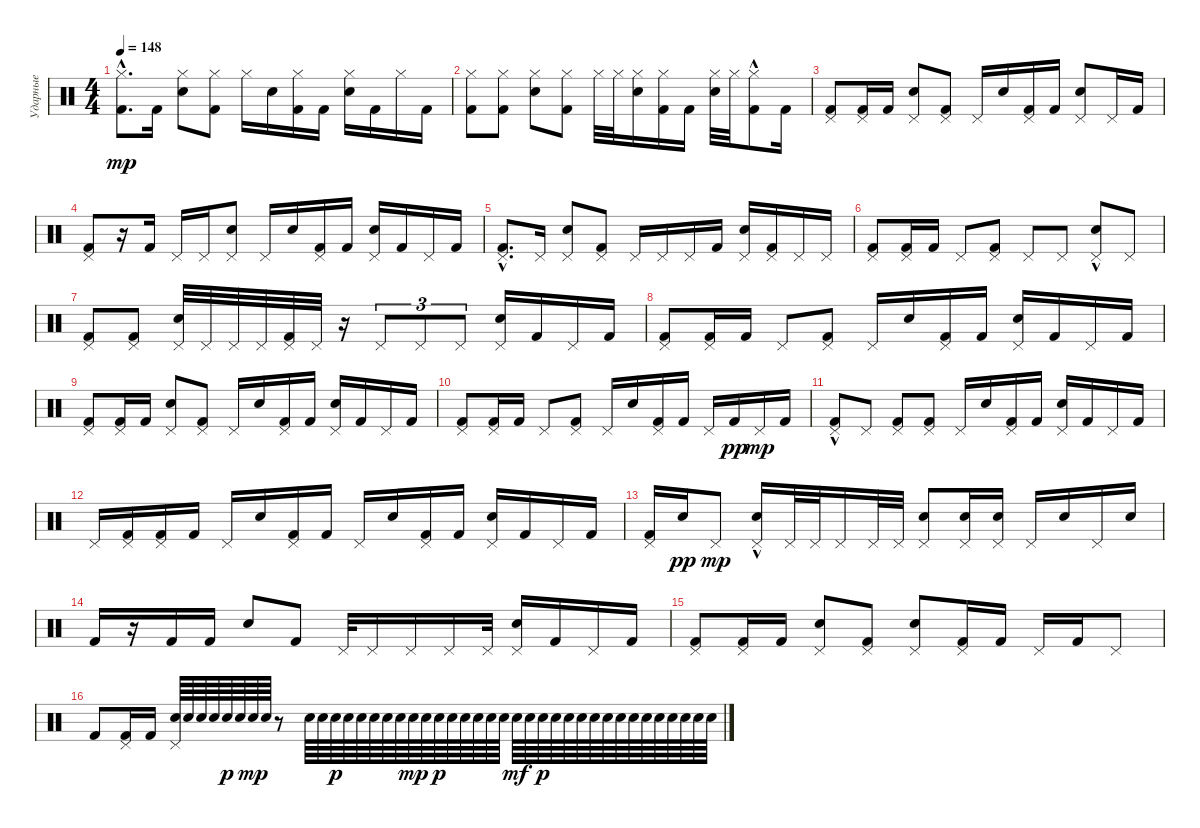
\track ("Ударные" "Ударные") {instrument percussion}
\staff {score}
\articulation defaults
\ts (4 4)
\tempo 148
\clef neutral
\ks c
("Kick (hit) 2" "Hi-Hat (closed)"{hac}).8{d dy mp} "Kick (hit) 2".16 ("Electric Snare (hit)" "Hi-Hat (closed)").8 ("Kick (hit) 2" "Hi-Hat (closed)").8 "Hi-Hat (closed)".16 "Electric Snare (hit)".16 ("Kick (hit) 2" "Hi-Hat (closed)").16 "Kick (hit) 2".16 ("Electric Snare (hit)" "Hi-Hat (closed)").16 "Kick (hit) 2".16 "Hi-Hat (closed)".16 "Kick (hit) 2".16 |
("Kick (hit) 2" "Hi-Hat (closed)").8 ("Kick (hit) 2" "Hi-Hat (closed)").8 ("Electric Snare (hit)" "Hi-Hat (closed)").8 ("Kick (hit) 2" "Hi-Hat (closed)").8 "Hi-Hat (closed)".32 "Hi-Hat (closed)".32 ("Electric Snare (hit)" "Hi-Hat (closed)").16 ("Kick (hit) 2" "Hi-Hat (closed)").16 "Kick (hit) 2".16 ("Electric Snare (hit)" "Hi-Hat (closed)").32 "Hi-Hat (closed)".32 ("Kick (hit) 2" "Hi-Hat (closed)"{hac}).8 "Kick (hit) 2".16 |
("Kick (hit) 2" "Pedal Hi-Hat (hit)").8 ("Kick (hit) 2" "Pedal Hi-Hat (hit)").16 "Kick (hit) 2".16 ("Electric Snare (hit)" "Pedal Hi-Hat (hit)").8 ("Kick (hit) 2" "Pedal Hi-Hat (hit)").8 "Pedal Hi-Hat (hit)".16 "Electric Snare (hit)".16 ("Kick (hit) 2" "Pedal Hi-Hat (hit)").16 "Kick (hit) 2".16 ("Electric Snare (hit)" "Pedal Hi-Hat (hit)").8 "Pedal Hi-Hat (hit)".16 "Kick (hit) 2".16 |
("Kick (hit) 2" "Pedal Hi-Hat (hit)").8 r.16 "Kick (hit) 2".16 "Pedal Hi-Hat (hit)".16 "Pedal Hi-Hat (hit)".16 ("Electric Snare (hit)" "Pedal Hi-Hat (hit)").8 "Pedal Hi-Hat (hit)".16 "Electric Snare (hit)".16 ("Kick (hit) 2" "Pedal Hi-Hat (hit)").16 "Kick (hit) 2".16 ("Electric Snare (hit)" "Pedal Hi-Hat (hit)").16 "Kick (hit) 2".16 "Pedal Hi-Hat (hit)".16 "Kick (hit) 2".16 |
("Kick (hit) 2"{hac} "Pedal Hi-Hat (hit)"{hac}).8{d} "Pedal Hi-Hat (hit)".16 ("Electric Snare (hit)" "Pedal Hi-Hat (hit)").8 ("Kick (hit) 2" "Pedal Hi-Hat (hit)").8 "Pedal Hi-Hat (hit)".16 "Pedal Hi-Hat (hit)".16 "Pedal Hi-Hat (hit)".16 "Kick (hit) 2".16 ("Electric Snare (hit)" "Pedal Hi-Hat (hit)").16 ("Kick (hit) 2" "Pedal Hi-Hat (hit)").16 "Pedal Hi-Hat (hit)".16 "Pedal Hi-Hat (hit)".16 |
("Kick (hit) 2" "Pedal Hi-Hat (hit)").8 ("Kick (hit) 2" "Pedal Hi-Hat (hit)").16 "Kick (hit) 2".16 "Pedal Hi-Hat (hit)".8 ("Kick (hit) 2" "Pedal Hi-Hat (hit)").8 "Pedal Hi-Hat (hit)".8 "Pedal Hi-Hat (hit)".8 ("Electric Snare (hit)"{hac} "Pedal Hi-Hat (hit)").8 "Pedal Hi-Hat (hit)".8 |
("Kick (hit) 2" "Pedal Hi-Hat (hit)").8 ("Kick (hit) 2" "Pedal Hi-Hat (hit)").8 ("Electric Snare (hit)" "Pedal Hi-Hat (hit)").32 "Pedal Hi-Hat (hit)".32 "Pedal Hi-Hat (hit)".32 "Pedal Hi-Hat (hit)".32 ("Kick (hit) 2" "Pedal Hi-Hat (hit)").32 "Pedal Hi-Hat (hit)".32 r.16 "Pedal Hi-Hat (hit)".8{tu (3 2)} "Pedal Hi-Hat (hit)".8{tu (3 2)} "Pedal Hi-Hat (hit)".8{tu (3 2)} ("Electric Snare (hit)" "Pedal Hi-Hat (hit)").16 "Kick (hit) 2".16 "Pedal Hi-Hat (hit)".16 "Kick (hit) 2".16 |
("Kick (hit) 2" "Pedal Hi-Hat (hit)").8 ("Kick (hit) 2" "Pedal Hi-Hat (hit)").16 "Kick (hit) 2".16 "Pedal Hi-Hat (hit)".8 ("Kick (hit) 2" "Pedal Hi-Hat (hit)").8 "Pedal Hi-Hat (hit)".16 "Electric Snare (hit)".16 ("Kick (hit) 2" "Pedal Hi-Hat (hit)").16 "Kick (hit) 2".16 ("Electric Snare (hit)" "Pedal Hi-Hat (hit)").16 "Kick (hit) 2".16 "Pedal Hi-Hat (hit)".16 "Kick (hit) 2".16 |
("Kick (hit) 2" "Pedal Hi-Hat (hit)").8 ("Kick (hit) 2" "Pedal Hi-Hat (hit)").16 "Kick (hit) 2".16 ("Electric Snare (hit)" "Pedal Hi-Hat (hit)").8 ("Kick (hit) 2" "Pedal Hi-Hat (hit)").8 "Pedal Hi-Hat (hit)".16 "Electric Snare (hit)".16 ("Kick (hit) 2" "Pedal Hi-Hat (hit)").16 "Kick (hit) 2".16 ("Electric Snare (hit)" "Pedal Hi-Hat (hit)").16 "Kick (hit) 2".16 "Pedal Hi-Hat (hit)".16 "Kick (hit) 2".16 |
("Kick (hit) 2" "Pedal Hi-Hat (hit)").8 ("Kick (hit) 2" "Pedal Hi-Hat (hit)").16 "Kick (hit) 2".16 "Pedal Hi-Hat (hit)".8 ("Kick (hit) 2" "Pedal Hi-Hat (hit)").8 "Pedal Hi-Hat (hit)".16 "Electric Snare (hit)".16 ("Kick (hit) 2" "Pedal Hi-Hat (hit)").16 "Kick (hit) 2".16 "Pedal Hi-Hat (hit)".16 "Kick (hit) 2".16{dy pp} "Pedal Hi-Hat (hit)".16{dy mp} "Kick (hit) 2".16 |
("Kick (hit) 2"{hac} "Pedal Hi-Hat (hit)").8 "Pedal Hi-Hat (hit)".8 ("Kick (hit) 2" "Pedal Hi-Hat (hit)").8 ("Kick (hit) 2" "Pedal Hi-Hat (hit)").8 "Pedal Hi-Hat (hit)".16 "Electric Snare (hit)".16 ("Kick (hit) 2" "Pedal Hi-Hat (hit)").16 "Kick (hit) 2".16 ("Electric Snare (hit)" "Pedal Hi-Hat (hit)").16 "Kick (hit) 2".16 "Pedal Hi-Hat (hit)".16 "Kick (hit) 2".16 |
"Pedal Hi-Hat (hit)".16 ("Kick (hit) 2" "Pedal Hi-Hat (hit)").16 ("Kick (hit) 2" "Pedal Hi-Hat (hit)").16 "Kick (hit) 2".16 "Pedal Hi-Hat (hit)".16 "Electric Snare (hit)".16 ("Kick (hit) 2" "Pedal Hi-Hat (hit)").16 "Kick (hit) 2".16 "Pedal Hi-Hat (hit)".16 "Electric Snare (hit)".16 ("Kick (hit) 2" "Pedal Hi-Hat (hit)").16 "Kick (hit) 2".16 ("Electric Snare (hit)" "Pedal Hi-Hat (hit)").16 "Kick (hit) 2".16 "Pedal Hi-Hat (hit)".16 "Kick (hit) 2".16 |
("Kick (hit) 2" "Pedal Hi-Hat (hit)").16 "Electric Snare (hit)".16{dy pp} "Pedal Hi-Hat (hit)".8{dy mp} ("Electric Snare (hit)"{hac} "Pedal Hi-Hat (hit)").16 "Pedal Hi-Hat (hit)".32 "Pedal Hi-Hat (hit)".32 "Pedal Hi-Hat (hit)".16 "Pedal Hi-Hat (hit)".32 "Pedal Hi-Hat (hit)".32 ("Electric Snare (hit)" "Pedal Hi-Hat (hit)").8 ("Electric Snare (hit)" "Pedal Hi-Hat (hit)").16 ("Electric Snare (hit)" "Pedal Hi-Hat (hit)").16 "Pedal Hi-Hat (hit)".16 "Electric Snare (hit)".16 "Pedal Hi-Hat (hit)".16 "Electric Snare (hit)".16 |
"Kick (hit) 2".16 r.16 "Kick (hit) 2".16 "Kick (hit) 2".16 "Electric Snare (hit)".8 "Kick (hit) 2".8 "Pedal Hi-Hat (hit)".32 "Pedal Hi-Hat (hit)".16 "Pedal Hi-Hat (hit)".16 "Pedal Hi-Hat (hit)".16 "Pedal Hi-Hat (hit)".32 ("Electric Snare (hit)" "Pedal Hi-Hat (hit)").16 "Kick (hit) 2".16 "Pedal Hi-Hat (hit)".16 "Kick (hit) 2".16 |
("Kick (hit) 2" "Pedal Hi-Hat (hit)").8 ("Kick (hit) 2" "Pedal Hi-Hat (hit)").16 "Kick (hit) 2".16 ("Electric Snare (hit)" "Pedal Hi-Hat (hit)").8 ("Kick (hit) 2" "Pedal Hi-Hat (hit)").8 ("Electric Snare (hit)" "Pedal Hi-Hat (hit)").8 ("Kick (hit) 2" "Pedal Hi-Hat (hit)").16 "Kick (hit) 2".16 "Pedal Hi-Hat (hit)".16 "Kick (hit) 2".16 "Pedal Hi-Hat (hit)".8 |
"Kick (hit) 2".8 ("Kick (hit) 2" "Pedal Hi-Hat (hit)").16 "Kick (hit) 2".16 ("Electric Snare (hit)" "Pedal Hi-Hat (hit)").64 "Electric Snare (hit)".64 "Electric Snare (hit)".64 "Electric Snare (hit)".64 "Electric Snare (hit)".64{dy p} "Electric Snare (hit)".64 "Electric Snare (hit)".64{dy mp} "Electric Snare (hit)".64 r.8 "Electric Snare (hit)".64 "Electric Snare (hit)".64 "Electric Snare (hit)".64{dy p} "Electric Snare (hit)".64 "Electric Snare (hit)".64 "Electric Snare (hit)".64 "Electric Snare (hit)".64 "Electric Snare (hit)".64 "Electric Snare (hit)".64{dy mp} "Electric Snare (hit)".64 "Electric Snare (hit)".64{dy p} "Electric Snare (hit)".64 "Electric Snare (hit)".64 "Electric Snare (hit)".64 "Electric Snare (hit)".64 "Electric Snare (hit)".64 "Electric Snare (hit)".64{dy mf} "Electric Snare (hit)".64 "Electric Snare (hit)".64{dy p} "Electric Snare (hit)".64 "Electric Snare (hit)".64 "Electric Snare (hit)".64 "Electric Snare (hit)".64 "Electric Snare (hit)".64 "Electric Snare (hit)".64 "Electric Snare (hit)".64 "Electric Snare (hit)".64 "Electric Snare (hit)".64 "Electric Snare (hit)".64 "Electric Snare (hit)".64 "Electric Snare (hit)".64 "Electric Snare (hit)".64
